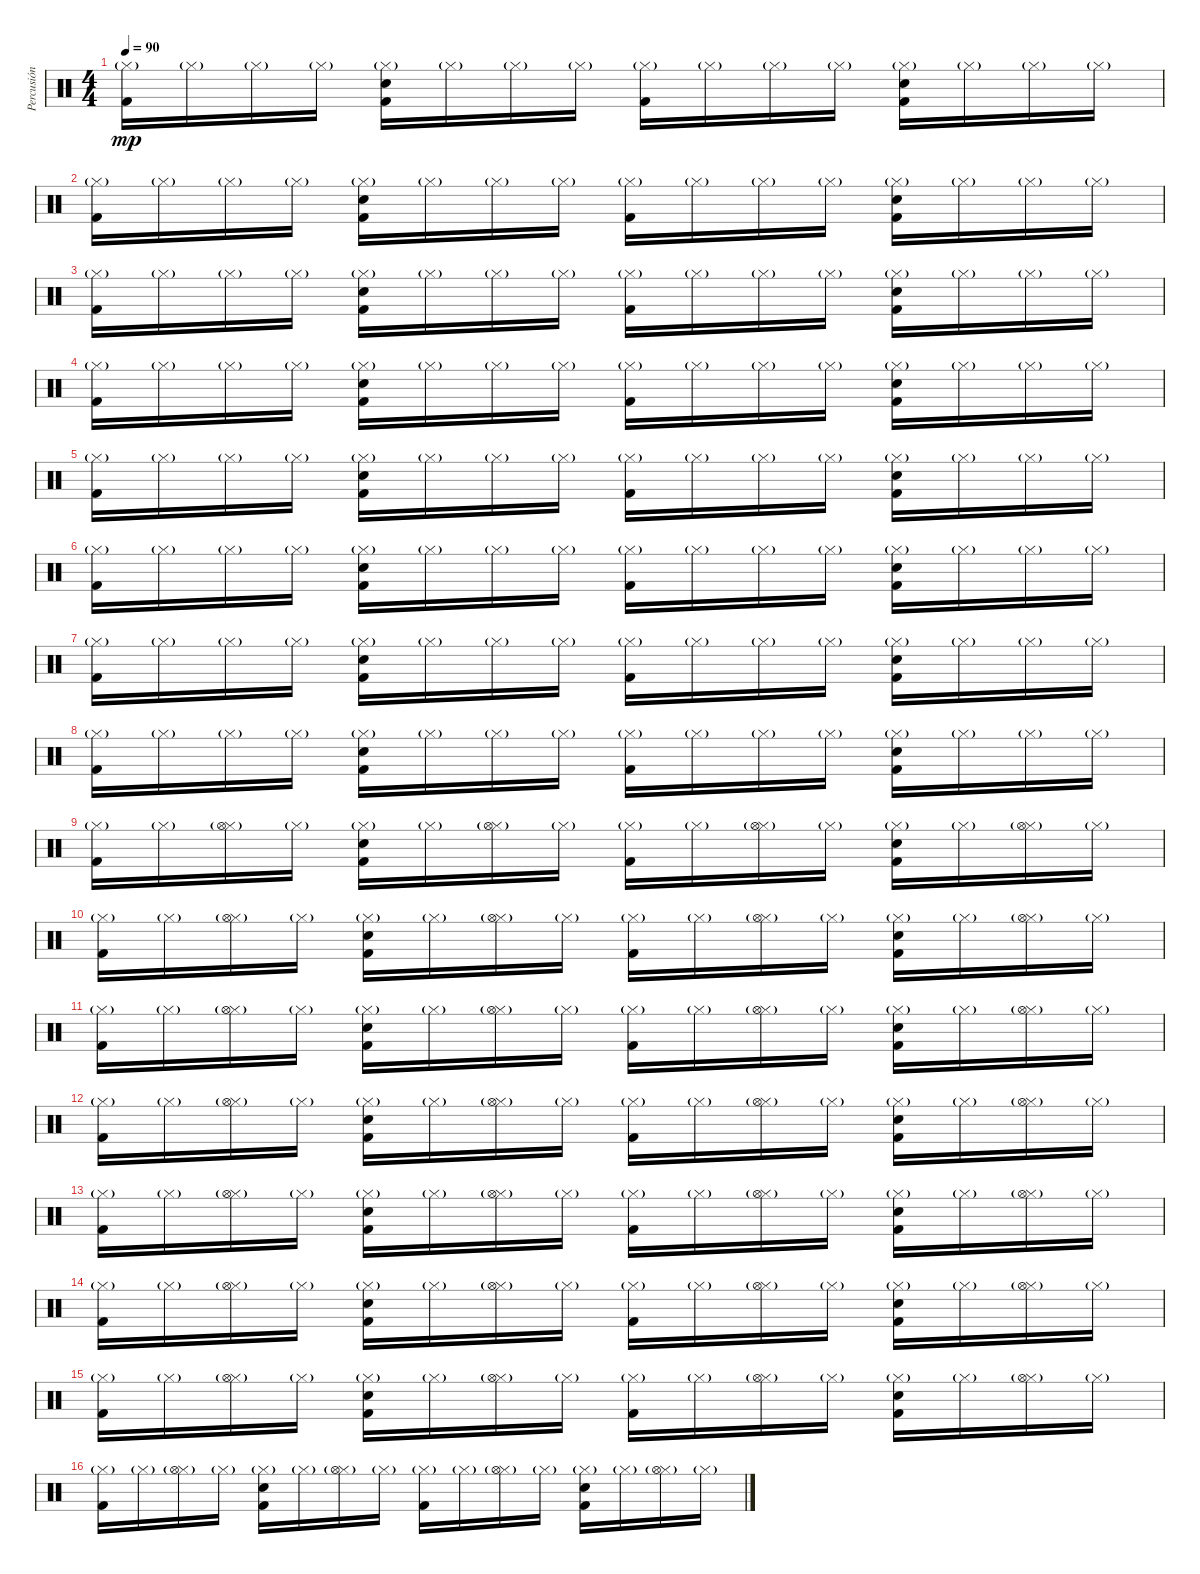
\track ("Percusión" "Percusión") {instrument percussion}
\staff {score}
\articulation defaults
\ts (4 4)
\tempo 90
\clef neutral
\ks c
("Kick (hit) 2" "Hi-Hat (closed)"{g}).16{dy mp} "Hi-Hat (closed)"{g}.16 "Hi-Hat (closed)"{g}.16 "Hi-Hat (closed)"{g}.16 ("Kick (hit) 2" "Snare (hit) 2" "Hi-Hat (closed)"{g}).16 "Hi-Hat (closed)"{g}.16 "Hi-Hat (closed)"{g}.16 "Hi-Hat (closed)"{g}.16 ("Kick (hit) 2" "Hi-Hat (closed)"{g}).16 "Hi-Hat (closed)"{g}.16 "Hi-Hat (closed)"{g}.16 "Hi-Hat (closed)"{g}.16 ("Kick (hit) 2" "Snare (hit) 2" "Hi-Hat (closed)"{g}).16 "Hi-Hat (closed)"{g}.16 "Hi-Hat (closed)"{g}.16 "Hi-Hat (closed)"{g}.16 |
("Kick (hit) 2" "Hi-Hat (closed)"{g}).16 "Hi-Hat (closed)"{g}.16 "Hi-Hat (closed)"{g}.16 "Hi-Hat (closed)"{g}.16 ("Kick (hit) 2" "Snare (hit) 2" "Hi-Hat (closed)"{g}).16 "Hi-Hat (closed)"{g}.16 "Hi-Hat (closed)"{g}.16 "Hi-Hat (closed)"{g}.16 ("Kick (hit) 2" "Hi-Hat (closed)"{g}).16 "Hi-Hat (closed)"{g}.16 "Hi-Hat (closed)"{g}.16 "Hi-Hat (closed)"{g}.16 ("Kick (hit) 2" "Snare (hit) 2" "Hi-Hat (closed)"{g}).16 "Hi-Hat (closed)"{g}.16 "Hi-Hat (closed)"{g}.16 "Hi-Hat (closed)"{g}.16 |
("Kick (hit) 2" "Hi-Hat (closed)"{g}).16 "Hi-Hat (closed)"{g}.16 "Hi-Hat (closed)"{g}.16 "Hi-Hat (closed)"{g}.16 ("Kick (hit) 2" "Snare (hit) 2" "Hi-Hat (closed)"{g}).16 "Hi-Hat (closed)"{g}.16 "Hi-Hat (closed)"{g}.16 "Hi-Hat (closed)"{g}.16 ("Kick (hit) 2" "Hi-Hat (closed)"{g}).16 "Hi-Hat (closed)"{g}.16 "Hi-Hat (closed)"{g}.16 "Hi-Hat (closed)"{g}.16 ("Kick (hit) 2" "Snare (hit) 2" "Hi-Hat (closed)"{g}).16 "Hi-Hat (closed)"{g}.16 "Hi-Hat (closed)"{g}.16 "Hi-Hat (closed)"{g}.16 |
("Kick (hit) 2" "Hi-Hat (closed)"{g}).16 "Hi-Hat (closed)"{g}.16 "Hi-Hat (closed)"{g}.16 "Hi-Hat (closed)"{g}.16 ("Kick (hit) 2" "Snare (hit) 2" "Hi-Hat (closed)"{g}).16 "Hi-Hat (closed)"{g}.16 "Hi-Hat (closed)"{g}.16 "Hi-Hat (closed)"{g}.16 ("Kick (hit) 2" "Hi-Hat (closed)"{g}).16 "Hi-Hat (closed)"{g}.16 "Hi-Hat (closed)"{g}.16 "Hi-Hat (closed)"{g}.16 ("Kick (hit) 2" "Snare (hit) 2" "Hi-Hat (closed)"{g}).16 "Hi-Hat (closed)"{g}.16 "Hi-Hat (closed)"{g}.16 "Hi-Hat (closed)"{g}.16 |
("Kick (hit) 2" "Hi-Hat (closed)"{g}).16 "Hi-Hat (closed)"{g}.16 "Hi-Hat (closed)"{g}.16 "Hi-Hat (closed)"{g}.16 ("Kick (hit) 2" "Snare (hit) 2" "Hi-Hat (closed)"{g}).16 "Hi-Hat (closed)"{g}.16 "Hi-Hat (closed)"{g}.16 "Hi-Hat (closed)"{g}.16 ("Kick (hit) 2" "Hi-Hat (closed)"{g}).16 "Hi-Hat (closed)"{g}.16 "Hi-Hat (closed)"{g}.16 "Hi-Hat (closed)"{g}.16 ("Kick (hit) 2" "Snare (hit) 2" "Hi-Hat (closed)"{g}).16 "Hi-Hat (closed)"{g}.16 "Hi-Hat (closed)"{g}.16 "Hi-Hat (closed)"{g}.16 |
("Kick (hit) 2" "Hi-Hat (closed)"{g}).16 "Hi-Hat (closed)"{g}.16 "Hi-Hat (closed)"{g}.16 "Hi-Hat (closed)"{g}.16 ("Kick (hit) 2" "Snare (hit) 2" "Hi-Hat (closed)"{g}).16 "Hi-Hat (closed)"{g}.16 "Hi-Hat (closed)"{g}.16 "Hi-Hat (closed)"{g}.16 ("Kick (hit) 2" "Hi-Hat (closed)"{g}).16 "Hi-Hat (closed)"{g}.16 "Hi-Hat (closed)"{g}.16 "Hi-Hat (closed)"{g}.16 ("Kick (hit) 2" "Snare (hit) 2" "Hi-Hat (closed)"{g}).16 "Hi-Hat (closed)"{g}.16 "Hi-Hat (closed)"{g}.16 "Hi-Hat (closed)"{g}.16 |
("Kick (hit) 2" "Hi-Hat (closed)"{g}).16 "Hi-Hat (closed)"{g}.16 "Hi-Hat (closed)"{g}.16 "Hi-Hat (closed)"{g}.16 ("Kick (hit) 2" "Snare (hit) 2" "Hi-Hat (closed)"{g}).16 "Hi-Hat (closed)"{g}.16 "Hi-Hat (closed)"{g}.16 "Hi-Hat (closed)"{g}.16 ("Kick (hit) 2" "Hi-Hat (closed)"{g}).16 "Hi-Hat (closed)"{g}.16 "Hi-Hat (closed)"{g}.16 "Hi-Hat (closed)"{g}.16 ("Kick (hit) 2" "Snare (hit) 2" "Hi-Hat (closed)"{g}).16 "Hi-Hat (closed)"{g}.16 "Hi-Hat (closed)"{g}.16 "Hi-Hat (closed)"{g}.16 |
("Kick (hit) 2" "Hi-Hat (closed)"{g}).16 "Hi-Hat (closed)"{g}.16 "Hi-Hat (closed)"{g}.16 "Hi-Hat (closed)"{g}.16 ("Kick (hit) 2" "Snare (hit) 2" "Hi-Hat (closed)"{g}).16 "Hi-Hat (closed)"{g}.16 "Hi-Hat (closed)"{g}.16 "Hi-Hat (closed)"{g}.16 ("Kick (hit) 2" "Hi-Hat (closed)"{g}).16 "Hi-Hat (closed)"{g}.16 "Hi-Hat (closed)"{g}.16 "Hi-Hat (closed)"{g}.16 ("Kick (hit) 2" "Snare (hit) 2" "Hi-Hat (closed)"{g}).16 "Hi-Hat (closed)"{g}.16 "Hi-Hat (closed)"{g}.16 "Hi-Hat (closed)"{g}.16 |
("Kick (hit) 2" "Hi-Hat (closed)"{g}).16 "Hi-Hat (closed)"{g}.16 ("Hi-Hat (closed)"{g} "Hi-Hat (open)").16 "Hi-Hat (closed)"{g}.16 ("Kick (hit) 2" "Snare (hit) 2" "Hi-Hat (closed)"{g}).16 "Hi-Hat (closed)"{g}.16 ("Hi-Hat (closed)"{g} "Hi-Hat (open)").16 "Hi-Hat (closed)"{g}.16 ("Kick (hit) 2" "Hi-Hat (closed)"{g}).16 "Hi-Hat (closed)"{g}.16 ("Hi-Hat (closed)"{g} "Hi-Hat (open)").16 "Hi-Hat (closed)"{g}.16 ("Kick (hit) 2" "Snare (hit) 2" "Hi-Hat (closed)"{g}).16 "Hi-Hat (closed)"{g}.16 ("Hi-Hat (closed)"{g} "Hi-Hat (open)").16 "Hi-Hat (closed)"{g}.16 |
("Kick (hit) 2" "Hi-Hat (closed)"{g}).16 "Hi-Hat (closed)"{g}.16 ("Hi-Hat (closed)"{g} "Hi-Hat (open)").16 "Hi-Hat (closed)"{g}.16 ("Kick (hit) 2" "Snare (hit) 2" "Hi-Hat (closed)"{g}).16 "Hi-Hat (closed)"{g}.16 ("Hi-Hat (closed)"{g} "Hi-Hat (open)").16 "Hi-Hat (closed)"{g}.16 ("Kick (hit) 2" "Hi-Hat (closed)"{g}).16 "Hi-Hat (closed)"{g}.16 ("Hi-Hat (closed)"{g} "Hi-Hat (open)").16 "Hi-Hat (closed)"{g}.16 ("Kick (hit) 2" "Snare (hit) 2" "Hi-Hat (closed)"{g}).16 "Hi-Hat (closed)"{g}.16 ("Hi-Hat (closed)"{g} "Hi-Hat (open)").16 "Hi-Hat (closed)"{g}.16 |
("Kick (hit) 2" "Hi-Hat (closed)"{g}).16 "Hi-Hat (closed)"{g}.16 ("Hi-Hat (closed)"{g} "Hi-Hat (open)").16 "Hi-Hat (closed)"{g}.16 ("Kick (hit) 2" "Snare (hit) 2" "Hi-Hat (closed)"{g}).16 "Hi-Hat (closed)"{g}.16 ("Hi-Hat (closed)"{g} "Hi-Hat (open)").16 "Hi-Hat (closed)"{g}.16 ("Kick (hit) 2" "Hi-Hat (closed)"{g}).16 "Hi-Hat (closed)"{g}.16 ("Hi-Hat (closed)"{g} "Hi-Hat (open)").16 "Hi-Hat (closed)"{g}.16 ("Kick (hit) 2" "Snare (hit) 2" "Hi-Hat (closed)"{g}).16 "Hi-Hat (closed)"{g}.16 ("Hi-Hat (closed)"{g} "Hi-Hat (open)").16 "Hi-Hat (closed)"{g}.16 |
("Kick (hit) 2" "Hi-Hat (closed)"{g}).16 "Hi-Hat (closed)"{g}.16 ("Hi-Hat (closed)"{g} "Hi-Hat (open)").16 "Hi-Hat (closed)"{g}.16 ("Kick (hit) 2" "Snare (hit) 2" "Hi-Hat (closed)"{g}).16 "Hi-Hat (closed)"{g}.16 ("Hi-Hat (closed)"{g} "Hi-Hat (open)").16 "Hi-Hat (closed)"{g}.16 ("Kick (hit) 2" "Hi-Hat (closed)"{g}).16 "Hi-Hat (closed)"{g}.16 ("Hi-Hat (closed)"{g} "Hi-Hat (open)").16 "Hi-Hat (closed)"{g}.16 ("Kick (hit) 2" "Snare (hit) 2" "Hi-Hat (closed)"{g}).16 "Hi-Hat (closed)"{g}.16 ("Hi-Hat (closed)"{g} "Hi-Hat (open)").16 "Hi-Hat (closed)"{g}.16 |
("Kick (hit) 2" "Hi-Hat (closed)"{g}).16 "Hi-Hat (closed)"{g}.16 ("Hi-Hat (closed)"{g} "Hi-Hat (open)").16 "Hi-Hat (closed)"{g}.16 ("Kick (hit) 2" "Snare (hit) 2" "Hi-Hat (closed)"{g}).16 "Hi-Hat (closed)"{g}.16 ("Hi-Hat (closed)"{g} "Hi-Hat (open)").16 "Hi-Hat (closed)"{g}.16 ("Kick (hit) 2" "Hi-Hat (closed)"{g}).16 "Hi-Hat (closed)"{g}.16 ("Hi-Hat (closed)"{g} "Hi-Hat (open)").16 "Hi-Hat (closed)"{g}.16 ("Kick (hit) 2" "Snare (hit) 2" "Hi-Hat (closed)"{g}).16 "Hi-Hat (closed)"{g}.16 ("Hi-Hat (closed)"{g} "Hi-Hat (open)").16 "Hi-Hat (closed)"{g}.16 |
("Kick (hit) 2" "Hi-Hat (closed)"{g}).16 "Hi-Hat (closed)"{g}.16 ("Hi-Hat (closed)"{g} "Hi-Hat (open)").16 "Hi-Hat (closed)"{g}.16 ("Kick (hit) 2" "Snare (hit) 2" "Hi-Hat (closed)"{g}).16 "Hi-Hat (closed)"{g}.16 ("Hi-Hat (closed)"{g} "Hi-Hat (open)").16 "Hi-Hat (closed)"{g}.16 ("Kick (hit) 2" "Hi-Hat (closed)"{g}).16 "Hi-Hat (closed)"{g}.16 ("Hi-Hat (closed)"{g} "Hi-Hat (open)").16 "Hi-Hat (closed)"{g}.16 ("Kick (hit) 2" "Snare (hit) 2" "Hi-Hat (closed)"{g}).16 "Hi-Hat (closed)"{g}.16 ("Hi-Hat (closed)"{g} "Hi-Hat (open)").16 "Hi-Hat (closed)"{g}.16 |
("Kick (hit) 2" "Hi-Hat (closed)"{g}).16 "Hi-Hat (closed)"{g}.16 ("Hi-Hat (closed)"{g} "Hi-Hat (open)").16 "Hi-Hat (closed)"{g}.16 ("Kick (hit) 2" "Snare (hit) 2" "Hi-Hat (closed)"{g}).16 "Hi-Hat (closed)"{g}.16 ("Hi-Hat (closed)"{g} "Hi-Hat (open)").16 "Hi-Hat (closed)"{g}.16 ("Kick (hit) 2" "Hi-Hat (closed)"{g}).16 "Hi-Hat (closed)"{g}.16 ("Hi-Hat (closed)"{g} "Hi-Hat (open)").16 "Hi-Hat (closed)"{g}.16 ("Kick (hit) 2" "Snare (hit) 2" "Hi-Hat (closed)"{g}).16 "Hi-Hat (closed)"{g}.16 ("Hi-Hat (closed)"{g} "Hi-Hat (open)").16 "Hi-Hat (closed)"{g}.16 |
("Kick (hit) 2" "Hi-Hat (closed)"{g}).16 "Hi-Hat (closed)"{g}.16 ("Hi-Hat (closed)"{g} "Hi-Hat (open)").16 "Hi-Hat (closed)"{g}.16 ("Kick (hit) 2" "Snare (hit) 2" "Hi-Hat (closed)"{g}).16 "Hi-Hat (closed)"{g}.16 ("Hi-Hat (closed)"{g} "Hi-Hat (open)").16 "Hi-Hat (closed)"{g}.16 ("Kick (hit) 2" "Hi-Hat (closed)"{g}).16 "Hi-Hat (closed)"{g}.16 ("Hi-Hat (closed)"{g} "Hi-Hat (open)").16 "Hi-Hat (closed)"{g}.16 ("Kick (hit) 2" "Snare (hit) 2" "Hi-Hat (closed)"{g}).16 "Hi-Hat (closed)"{g}.16 ("Hi-Hat (closed)"{g} "Hi-Hat (open)").16 "Hi-Hat (closed)"{g}.16
